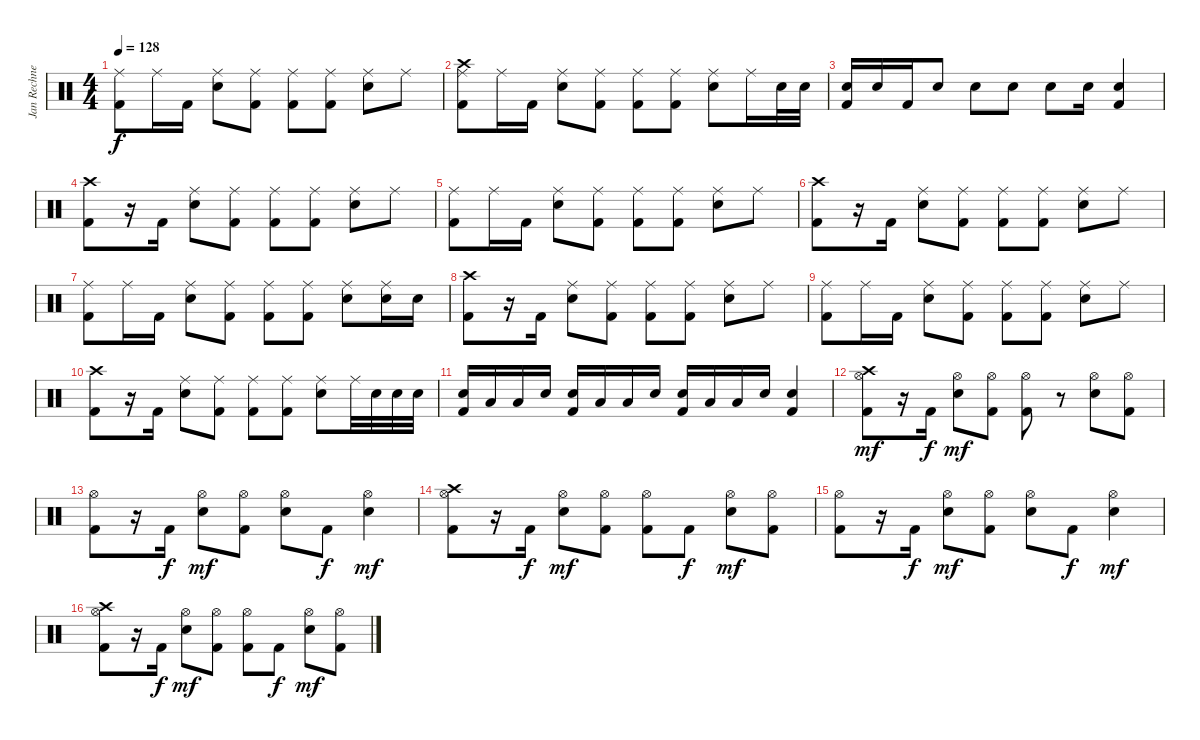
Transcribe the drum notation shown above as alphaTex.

\track ("Jan Rechnerger" "Jan Rechne") {instrument percussion}
\staff {score}
\articulation defaults
\ts (4 4)
\tempo 128
\clef neutral
\ks c
("Ride (middle)" "Kick (hit) 2").8{dy f} "Ride (middle)".16 "Kick (hit) 2".16 ("Ride (middle)" "Snare (hit) 2").8 ("Ride (middle)" "Kick (hit) 2").8 ("Ride (middle)" "Kick (hit) 2").8 ("Ride (middle)" "Kick (hit) 2").8 ("Ride (middle)" "Snare (hit) 2").8 "Ride (middle)".8 |
("Crash high (hit)" "Ride (middle)" "Kick (hit) 2").8 "Ride (middle)".16 "Kick (hit) 2".16 ("Ride (middle)" "Snare (hit) 2").8 ("Ride (middle)" "Kick (hit) 2").8 ("Ride (middle)" "Kick (hit) 2").8 ("Ride (middle)" "Kick (hit) 2").8 ("Ride (middle)" "Snare (hit) 2").8 "Ride (middle)".16 "Snare (hit) 2".32 "Snare (hit) 2".32 |
("Snare (hit) 2" "Kick (hit) 2").16 "Snare (hit) 2".16 "Kick (hit) 2".16 "Snare (hit) 2".8 "Snare (hit) 2".8 "Snare (hit) 2".8 "Snare (hit) 2".8 "Snare (hit) 2".16 ("Snare (hit) 2" "Kick (hit) 2").4 |
("Crash high (hit)" "Kick (hit) 2").8 r.16 "Kick (hit) 2".16 ("Ride (middle)" "Snare (hit) 2").8 ("Ride (middle)" "Kick (hit) 2").8 ("Ride (middle)" "Kick (hit) 2").8 ("Ride (middle)" "Kick (hit) 2").8 ("Ride (middle)" "Snare (hit) 2").8 "Ride (middle)".8 |
("Ride (middle)" "Kick (hit) 2").8 "Ride (middle)".16 "Kick (hit) 2".16 ("Ride (middle)" "Snare (hit) 2").8 ("Ride (middle)" "Kick (hit) 2").8 ("Ride (middle)" "Kick (hit) 2").8 ("Ride (middle)" "Kick (hit) 2").8 ("Ride (middle)" "Snare (hit) 2").8 "Ride (middle)".8 |
("Crash high (hit)" "Kick (hit) 2").8 r.16 "Kick (hit) 2".16 ("Ride (middle)" "Snare (hit) 2").8 ("Ride (middle)" "Kick (hit) 2").8 ("Ride (middle)" "Kick (hit) 2").8 ("Ride (middle)" "Kick (hit) 2").8 ("Ride (middle)" "Snare (hit) 2").8 "Ride (middle)".8 |
("Ride (middle)" "Kick (hit) 2").8 "Ride (middle)".16 "Kick (hit) 2".16 ("Ride (middle)" "Snare (hit) 2").8 ("Ride (middle)" "Kick (hit) 2").8 ("Ride (middle)" "Kick (hit) 2").8 ("Ride (middle)" "Kick (hit) 2").8 ("Ride (middle)" "Snare (hit) 2").8 ("Ride (middle)" "Snare (hit) 2").16 "Snare (hit) 2".16 |
("Crash high (hit)" "Kick (hit) 2").8 r.16 "Kick (hit) 2".16 ("Ride (middle)" "Snare (hit) 2").8 ("Ride (middle)" "Kick (hit) 2").8 ("Ride (middle)" "Kick (hit) 2").8 ("Ride (middle)" "Kick (hit) 2").8 ("Ride (middle)" "Snare (hit) 2").8 "Ride (middle)".8 |
("Ride (middle)" "Kick (hit) 2").8 "Ride (middle)".16 "Kick (hit) 2".16 ("Ride (middle)" "Snare (hit) 2").8 ("Ride (middle)" "Kick (hit) 2").8 ("Ride (middle)" "Kick (hit) 2").8 ("Ride (middle)" "Kick (hit) 2").8 ("Ride (middle)" "Snare (hit) 2").8 "Ride (middle)".8 |
("Crash high (hit)" "Kick (hit) 2").8 r.16 "Kick (hit) 2".16 ("Ride (middle)" "Snare (hit) 2").8 ("Ride (middle)" "Kick (hit) 2").8 ("Ride (middle)" "Kick (hit) 2").8 ("Ride (middle)" "Kick (hit) 2").8 ("Ride (middle)" "Snare (hit) 2").8 "Ride (middle)".32 "Snare (hit) 2".32 "Snare (hit) 2".32 "Snare (hit) 2".32 |
("Snare (hit) 2" "Kick (hit) 2").16 "Low Tom (hit)".16 "Low Tom (hit)".16 "Snare (hit) 2".16 ("Snare (hit) 2" "Kick (hit) 2").16 "Low Tom (hit)".16 "Low Tom (hit)".16 "Snare (hit) 2".16 ("Snare (hit) 2" "Kick (hit) 2").16 "Low Tom (hit)".16 "Low Tom (hit)".16 "Snare (hit) 2".16 ("Snare (hit) 2" "Kick (hit) 2").4 |
("Crash high (hit)" "Hi-Hat (open)" "Kick (hit) 2").8{dy mf} r.16 "Kick (hit) 2".16{dy f} ("Hi-Hat (open)" "Snare (hit) 2").8{dy mf} ("Hi-Hat (open)" "Kick (hit) 2").8 ("Hi-Hat (open)" "Kick (hit) 2").8 r.8 ("Hi-Hat (open)" "Snare (hit) 2").8 ("Hi-Hat (open)" "Kick (hit) 2").8 |
("Hi-Hat (open)" "Kick (hit) 2").8 r.16 "Kick (hit) 2".16{dy f} ("Hi-Hat (open)" "Snare (hit) 2").8{dy mf} ("Hi-Hat (open)" "Kick (hit) 2").8 ("Hi-Hat (open)" "Snare (hit) 2").8 "Kick (hit) 2".8{dy f} ("Hi-Hat (open)" "Snare (hit) 2").4{dy mf} |
("Crash high (hit)" "Hi-Hat (open)" "Kick (hit) 2").8 r.16 "Kick (hit) 2".16{dy f} ("Hi-Hat (open)" "Snare (hit) 2").8{dy mf} ("Hi-Hat (open)" "Kick (hit) 2").8 ("Hi-Hat (open)" "Kick (hit) 2").8 "Kick (hit) 2".8{dy f} ("Hi-Hat (open)" "Snare (hit) 2").8{dy mf} ("Hi-Hat (open)" "Kick (hit) 2").8 |
("Hi-Hat (open)" "Kick (hit) 2").8 r.16 "Kick (hit) 2".16{dy f} ("Hi-Hat (open)" "Snare (hit) 2").8{dy mf} ("Hi-Hat (open)" "Kick (hit) 2").8 ("Hi-Hat (open)" "Snare (hit) 2").8 "Kick (hit) 2".8{dy f} ("Hi-Hat (open)" "Snare (hit) 2").4{dy mf} |
("Crash high (hit)" "Hi-Hat (open)" "Kick (hit) 2").8 r.16 "Kick (hit) 2".16{dy f} ("Hi-Hat (open)" "Snare (hit) 2").8{dy mf} ("Hi-Hat (open)" "Kick (hit) 2").8 ("Hi-Hat (open)" "Kick (hit) 2").8 "Kick (hit) 2".8{dy f} ("Hi-Hat (open)" "Snare (hit) 2").8{dy mf} ("Hi-Hat (open)" "Kick (hit) 2").8
